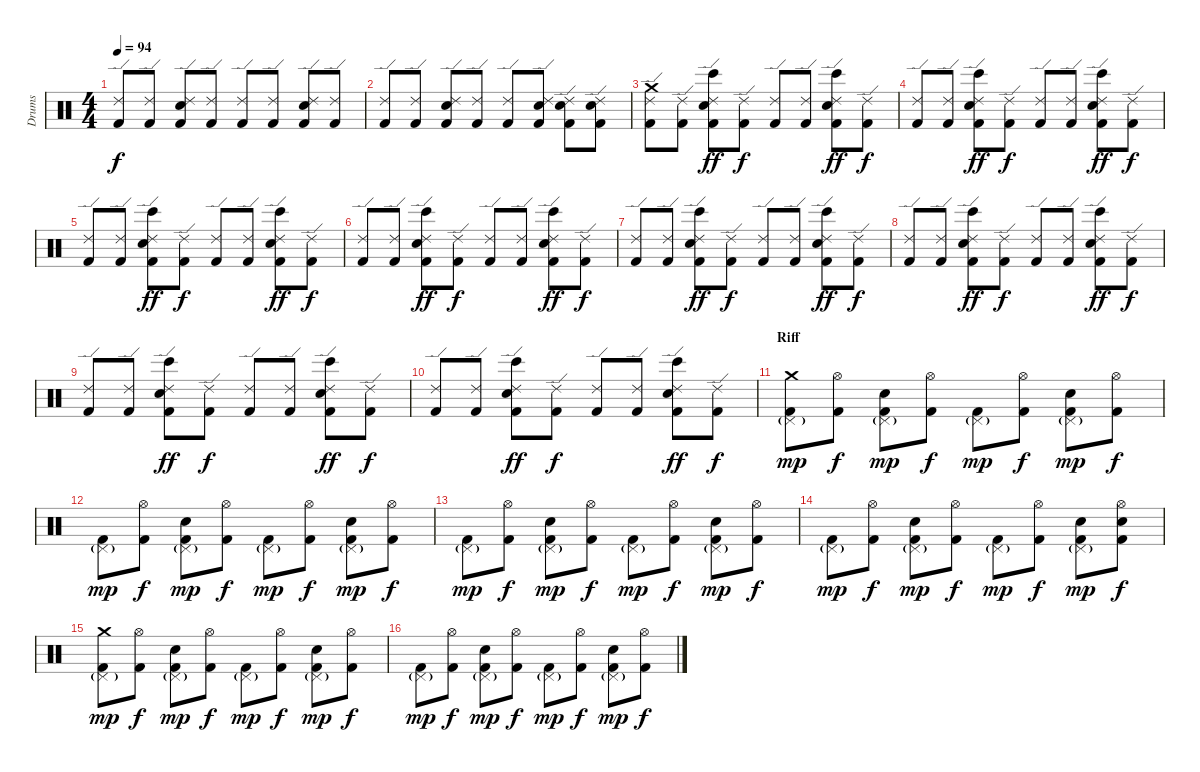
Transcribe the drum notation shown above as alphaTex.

\track ("Drums" "Drums") {instrument percussion}
\staff {score}
\articulation defaults
\ts (4 4)
\tempo 94
\clef neutral
\ks c
("Ride (edge) 2" "Kick (hit) 2").8{dy f} ("Ride (edge) 2" "Kick (hit) 2").8 ("Ride (edge) 2" "Snare (hit) 2" "Kick (hit) 2").8 ("Ride (edge) 2" "Kick (hit) 2").8 ("Ride (edge) 2" "Kick (hit) 2").8 ("Ride (edge) 2" "Kick (hit) 2").8 ("Ride (edge) 2" "Snare (hit) 2" "Kick (hit) 2").8 ("Ride (edge) 2" "Kick (hit) 2").8 |
("Ride (edge) 2" "Kick (hit) 2").8 ("Ride (edge) 2" "Kick (hit) 2").8 ("Ride (edge) 2" "Snare (hit) 2" "Kick (hit) 2").8 ("Ride (edge) 2" "Kick (hit) 2").8 ("Ride (edge) 2" "Kick (hit) 2").8 ("Ride (edge) 2" "Snare (hit) 2" "Kick (hit) 2").8 ("Ride (edge) 2" "Snare (hit) 2" "Kick (hit) 2").8 ("Ride (edge) 2" "Snare (hit) 2" "Kick (hit) 2").8 |
("Ride (edge) 2" "Crash medium (hit)" "Kick (hit) 2").8 ("Ride (edge) 2" "Kick (hit) 2").8 ("Ride (edge) 2" "Bongo High (hit)" "Snare (hit) 2" "Kick (hit) 2").8{dy ff} ("Ride (edge) 2" "Kick (hit) 2").8{dy f} ("Ride (edge) 2" "Kick (hit) 2").8 ("Ride (edge) 2" "Kick (hit) 2").8 ("Ride (edge) 2" "Bongo High (hit)" "Snare (hit) 2" "Kick (hit) 2").8{dy ff} ("Ride (edge) 2" "Kick (hit) 2").8{dy f} |
("Ride (edge) 2" "Kick (hit) 2").8 ("Ride (edge) 2" "Kick (hit) 2").8 ("Ride (edge) 2" "Bongo High (hit)" "Snare (hit) 2" "Kick (hit) 2").8{dy ff} ("Ride (edge) 2" "Kick (hit) 2").8{dy f} ("Ride (edge) 2" "Kick (hit) 2").8 ("Ride (edge) 2" "Kick (hit) 2").8 ("Ride (edge) 2" "Bongo High (hit)" "Snare (hit) 2" "Kick (hit) 2").8{dy ff} ("Ride (edge) 2" "Kick (hit) 2").8{dy f} |
("Ride (edge) 2" "Kick (hit) 2").8 ("Ride (edge) 2" "Kick (hit) 2").8 ("Ride (edge) 2" "Bongo High (hit)" "Snare (hit) 2" "Kick (hit) 2").8{dy ff} ("Ride (edge) 2" "Kick (hit) 2").8{dy f} ("Ride (edge) 2" "Kick (hit) 2").8 ("Ride (edge) 2" "Kick (hit) 2").8 ("Ride (edge) 2" "Bongo High (hit)" "Snare (hit) 2" "Kick (hit) 2").8{dy ff} ("Ride (edge) 2" "Kick (hit) 2").8{dy f} |
("Ride (edge) 2" "Kick (hit) 2").8 ("Ride (edge) 2" "Kick (hit) 2").8 ("Ride (edge) 2" "Bongo High (hit)" "Snare (hit) 2" "Kick (hit) 2").8{dy ff} ("Ride (edge) 2" "Kick (hit) 2").8{dy f} ("Ride (edge) 2" "Kick (hit) 2").8 ("Ride (edge) 2" "Kick (hit) 2").8 ("Ride (edge) 2" "Bongo High (hit)" "Snare (hit) 2" "Kick (hit) 2").8{dy ff} ("Ride (edge) 2" "Kick (hit) 2").8{dy f} |
("Ride (edge) 2" "Kick (hit) 2").8 ("Ride (edge) 2" "Kick (hit) 2").8 ("Ride (edge) 2" "Bongo High (hit)" "Snare (hit) 2" "Kick (hit) 2").8{dy ff} ("Ride (edge) 2" "Kick (hit) 2").8{dy f} ("Ride (edge) 2" "Kick (hit) 2").8 ("Ride (edge) 2" "Kick (hit) 2").8 ("Ride (edge) 2" "Bongo High (hit)" "Snare (hit) 2" "Kick (hit) 2").8{dy ff} ("Ride (edge) 2" "Kick (hit) 2").8{dy f} |
("Ride (edge) 2" "Kick (hit) 2").8 ("Ride (edge) 2" "Kick (hit) 2").8 ("Ride (edge) 2" "Bongo High (hit)" "Snare (hit) 2" "Kick (hit) 2").8{dy ff} ("Ride (edge) 2" "Kick (hit) 2").8{dy f} ("Ride (edge) 2" "Kick (hit) 2").8 ("Ride (edge) 2" "Kick (hit) 2").8 ("Ride (edge) 2" "Bongo High (hit)" "Snare (hit) 2" "Kick (hit) 2").8{dy ff} ("Ride (edge) 2" "Kick (hit) 2").8{dy f} |
("Ride (edge) 2" "Kick (hit) 2").8 ("Ride (edge) 2" "Kick (hit) 2").8 ("Ride (edge) 2" "Bongo High (hit)" "Snare (hit) 2" "Kick (hit) 2").8{dy ff} ("Ride (edge) 2" "Kick (hit) 2").8{dy f} ("Ride (edge) 2" "Kick (hit) 2").8 ("Ride (edge) 2" "Kick (hit) 2").8 ("Ride (edge) 2" "Bongo High (hit)" "Snare (hit) 2" "Kick (hit) 2").8{dy ff} ("Ride (edge) 2" "Kick (hit) 2").8{dy f} |
("Ride (edge) 2" "Kick (hit) 2").8 ("Ride (edge) 2" "Kick (hit) 2").8 ("Ride (edge) 2" "Bongo High (hit)" "Snare (hit) 2" "Kick (hit) 2").8{dy ff} ("Ride (edge) 2" "Kick (hit) 2").8{dy f} ("Ride (edge) 2" "Kick (hit) 2").8 ("Ride (edge) 2" "Kick (hit) 2").8 ("Ride (edge) 2" "Bongo High (hit)" "Snare (hit) 2" "Kick (hit) 2").8{dy ff} ("Ride (edge) 2" "Kick (hit) 2").8{dy f} |
\section ("" "Riff")
("Pedal Hi-Hat (hit)"{g} "Crash medium (hit)" "Kick (hit) 2").8{dy mp} ("Hi-Hat (open)" "Kick (hit) 2").8{dy f} ("Pedal Hi-Hat (hit)"{g} "Snare (hit) 2" "Kick (hit) 2").8{dy mp} ("Hi-Hat (open)" "Kick (hit) 2").8{dy f} ("Pedal Hi-Hat (hit)"{g} "Kick (hit) 2").8{dy mp} ("Hi-Hat (open)" "Kick (hit) 2").8{dy f} ("Pedal Hi-Hat (hit)"{g} "Snare (hit) 2" "Kick (hit) 2").8{dy mp} ("Hi-Hat (open)" "Kick (hit) 2").8{dy f} |
("Pedal Hi-Hat (hit)"{g} "Kick (hit) 2").8{dy mp} ("Hi-Hat (open)" "Kick (hit) 2").8{dy f} ("Pedal Hi-Hat (hit)"{g} "Snare (hit) 2" "Kick (hit) 2").8{dy mp} ("Hi-Hat (open)" "Kick (hit) 2").8{dy f} ("Pedal Hi-Hat (hit)"{g} "Kick (hit) 2").8{dy mp} ("Hi-Hat (open)" "Kick (hit) 2").8{dy f} ("Pedal Hi-Hat (hit)"{g} "Snare (hit) 2" "Kick (hit) 2").8{dy mp} ("Hi-Hat (open)" "Kick (hit) 2").8{dy f} |
("Pedal Hi-Hat (hit)"{g} "Kick (hit) 2").8{dy mp} ("Hi-Hat (open)" "Kick (hit) 2").8{dy f} ("Pedal Hi-Hat (hit)"{g} "Snare (hit) 2" "Kick (hit) 2").8{dy mp} ("Hi-Hat (open)" "Kick (hit) 2").8{dy f} ("Pedal Hi-Hat (hit)"{g} "Kick (hit) 2").8{dy mp} ("Hi-Hat (open)" "Kick (hit) 2").8{dy f} ("Pedal Hi-Hat (hit)"{g} "Snare (hit) 2" "Kick (hit) 2").8{dy mp} ("Hi-Hat (open)" "Kick (hit) 2").8{dy f} |
("Pedal Hi-Hat (hit)"{g} "Kick (hit) 2").8{dy mp} ("Hi-Hat (open)" "Kick (hit) 2").8{dy f} ("Pedal Hi-Hat (hit)"{g} "Snare (hit) 2" "Kick (hit) 2").8{dy mp} ("Hi-Hat (open)" "Kick (hit) 2").8{dy f} ("Pedal Hi-Hat (hit)"{g} "Kick (hit) 2").8{dy mp} ("Hi-Hat (open)" "Kick (hit) 2").8{dy f} ("Pedal Hi-Hat (hit)"{g} "Snare (hit) 2" "Kick (hit) 2").8{dy mp} ("Hi-Hat (open)" "Snare (hit) 2" "Kick (hit) 2").8{dy f} |
("Pedal Hi-Hat (hit)"{g} "Crash medium (hit)" "Kick (hit) 2").8{dy mp} ("Hi-Hat (open)" "Kick (hit) 2").8{dy f} ("Pedal Hi-Hat (hit)"{g} "Snare (hit) 2" "Kick (hit) 2").8{dy mp} ("Hi-Hat (open)" "Kick (hit) 2").8{dy f} ("Pedal Hi-Hat (hit)"{g} "Kick (hit) 2").8{dy mp} ("Hi-Hat (open)" "Kick (hit) 2").8{dy f} ("Pedal Hi-Hat (hit)"{g} "Snare (hit) 2" "Kick (hit) 2").8{dy mp} ("Hi-Hat (open)" "Kick (hit) 2").8{dy f} |
("Pedal Hi-Hat (hit)"{g} "Kick (hit) 2").8{dy mp} ("Hi-Hat (open)" "Kick (hit) 2").8{dy f} ("Pedal Hi-Hat (hit)"{g} "Snare (hit) 2" "Kick (hit) 2").8{dy mp} ("Hi-Hat (open)" "Kick (hit) 2").8{dy f} ("Pedal Hi-Hat (hit)"{g} "Kick (hit) 2").8{dy mp} ("Hi-Hat (open)" "Kick (hit) 2").8{dy f} ("Pedal Hi-Hat (hit)"{g} "Snare (hit) 2" "Kick (hit) 2").8{dy mp} ("Hi-Hat (open)" "Kick (hit) 2").8{dy f}
